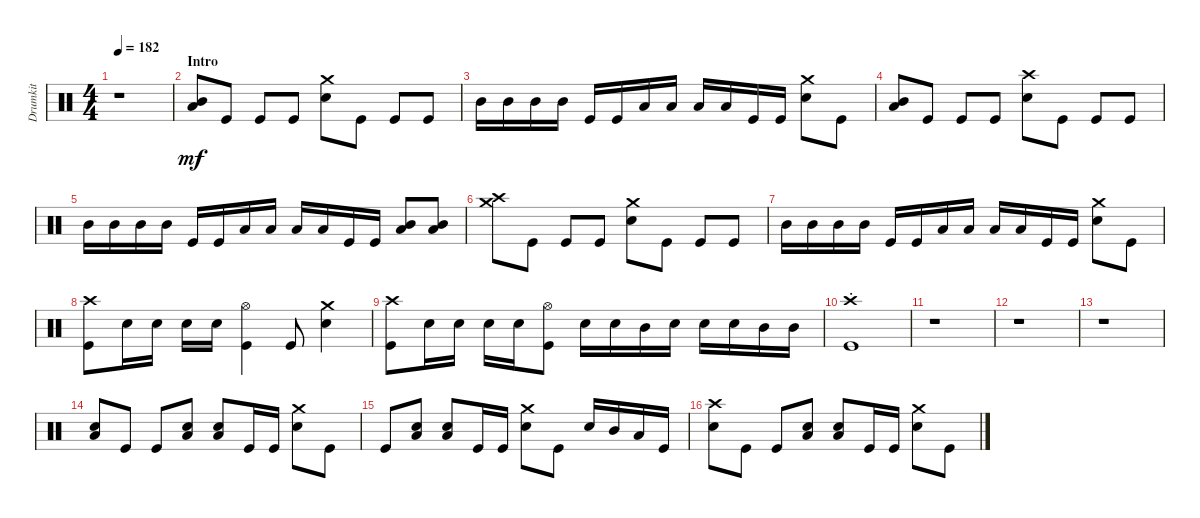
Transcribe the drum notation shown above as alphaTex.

\track ("Drumkit" "Drumkit") {instrument percussion}
\staff {score}
\articulation defaults
\ts (4 4)
\tempo 182
\clef neutral
\ks c
r.1{dy mf} |
\section ("" "Intro")
("Mid Tom (hit)" "Low Tom (hit)").8 "Kick (hit)".8 "Kick (hit)".8 "Kick (hit)".8 ("Snare (hit) 2" "Crash medium (hit)").8 "Kick (hit)".8 "Kick (hit)".8 "Kick (hit)".8 |
"Mid Tom (hit)".16 "Mid Tom (hit)".16 "Mid Tom (hit)".16 "Mid Tom (hit)".16 "Kick (hit)".16 "Kick (hit)".16 "Low Tom (hit)".16 "Low Tom (hit)".16 "Low Tom (hit)".16 "Low Tom (hit)".16 "Kick (hit)".16 "Kick (hit)".16 ("Snare (hit) 2" "Crash medium (hit)").8 "Kick (hit)".8 |
("Mid Tom (hit)" "Low Tom (hit)").8 "Kick (hit)".8 "Kick (hit)".8 "Kick (hit)".8 ("Snare (hit) 2" "Crash high (hit)").8 "Kick (hit)".8 "Kick (hit)".8 "Kick (hit)".8 |
"Mid Tom (hit)".16 "Mid Tom (hit)".16 "Mid Tom (hit)".16 "Mid Tom (hit)".16 "Kick (hit)".16 "Kick (hit)".16 "Low Tom (hit)".16 "Low Tom (hit)".16 "Low Tom (hit)".16 "Low Tom (hit)".16 "Kick (hit)".16 "Kick (hit)".16 ("Low Tom (hit)" "Mid Tom (hit)").8 ("Low Tom (hit)" "Mid Tom (hit)").8 |
("Crash medium (hit)" "Crash high (hit)").8 "Kick (hit)".8 "Kick (hit)".8 "Kick (hit)".8 ("Snare (hit) 2" "Crash medium (hit)").8 "Kick (hit)".8 "Kick (hit)".8 "Kick (hit)".8 |
"Mid Tom (hit)".16 "Mid Tom (hit)".16 "Mid Tom (hit)".16 "Mid Tom (hit)".16 "Kick (hit)".16 "Kick (hit)".16 "Low Tom (hit)".16 "Low Tom (hit)".16 "Low Tom (hit)".16 "Low Tom (hit)".16 "Kick (hit)".16 "Kick (hit)".16 ("Snare (hit) 2" "Crash medium (hit)").8 "Kick (hit)".8 |
("Crash high (hit)" "Kick (hit)").8 "Snare (hit) 2".16 "Snare (hit) 2".16 "Snare (hit) 2".16 "Snare (hit) 2".16 ("Kick (hit)" "Hi-Hat (open)").4 "Kick (hit)".8 ("Snare (hit) 2" "Crash medium (hit)").4 |
("Crash high (hit)" "Kick (hit)").8 "Snare (hit) 2".16 "Snare (hit) 2".16 "Snare (hit) 2".16 "Snare (hit) 2".16 ("Kick (hit)" "Hi-Hat (open)").8 "Snare (hit) 2".16 "Snare (hit) 2".16 "Mid Tom (hit)".16 "Snare (hit) 2".16 "Snare (hit) 2".16 "Snare (hit) 2".16 "Mid Tom (hit)".16 "Mid Tom (hit)".16 |
("Kick (hit)" "Crash high (choke)").1 |
r.1 |
r.1 |
r.1 |
("Snare (hit) 2" "Low Tom (hit)").8 "Kick (hit)".8 "Kick (hit)".8 ("Low Tom (hit)" "Snare (hit) 2").8 ("Low Tom (hit)" "Snare (hit) 2").8 "Kick (hit)".16 "Kick (hit)".16 ("Snare (hit) 2" "Crash medium (hit)").8 "Kick (hit)".8 |
"Kick (hit)".8 ("Low Tom (hit)" "Snare (hit) 2").8 ("Low Tom (hit)" "Snare (hit) 2").8 "Kick (hit)".16 "Kick (hit)".16 ("Snare (hit) 2" "Crash medium (hit)").8 "Kick (hit)".8 "Snare (hit) 2".16 "Mid Tom (hit)".16 "Low Tom (hit)".16 "Kick (hit)".16 |
("Snare (hit) 2" "Crash high (hit)").8 "Kick (hit)".8 "Kick (hit)".8 ("Low Tom (hit)" "Snare (hit) 2").8 ("Low Tom (hit)" "Snare (hit) 2").8 "Kick (hit)".16 "Kick (hit)".16 ("Snare (hit) 2" "Crash medium (hit)").8 "Kick (hit)".8
